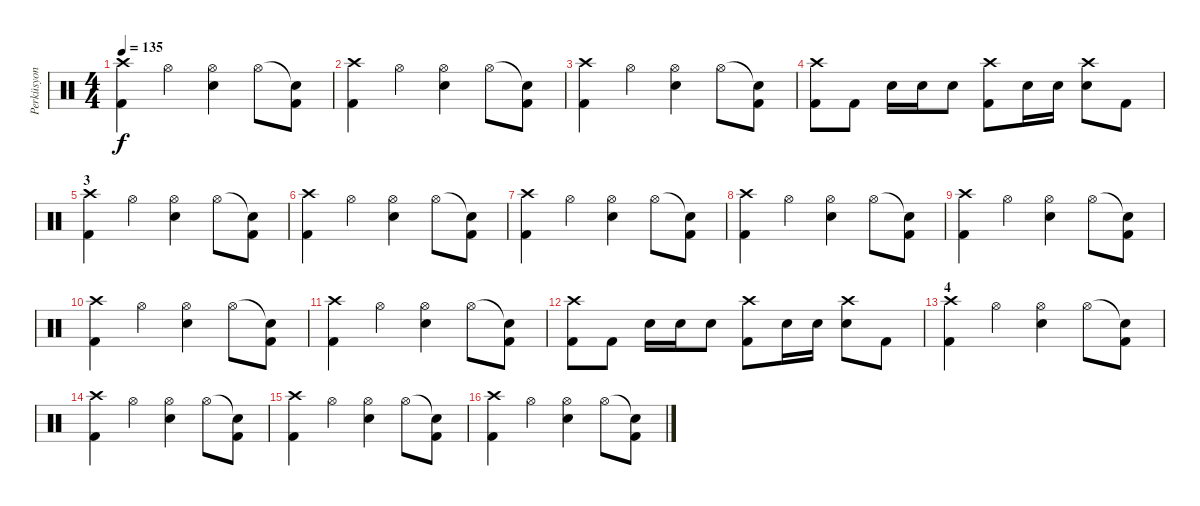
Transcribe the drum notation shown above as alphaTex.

\track ("Perküsyon" "Perküsyon") {instrument percussion}
\staff {score}
\articulation defaults
\ts (4 4)
\tempo 135
\clef neutral
\ks c
("Crash high (hit)" "Kick (hit) 2").4{dy f} "Hi-Hat (open)".4 ("Hi-Hat (open)" "Snare (hit) 2").4 "Hi-Hat (open)".8 ("Snare (hit)"{t} "Kick (hit) 2").8 |
("Crash high (hit)" "Kick (hit) 2").4 "Hi-Hat (open)".4 ("Hi-Hat (open)" "Snare (hit) 2").4 "Hi-Hat (open)".8 ("Snare (hit)"{t} "Kick (hit) 2").8 |
("Crash high (hit)" "Kick (hit) 2").4 "Hi-Hat (open)".4 ("Hi-Hat (open)" "Snare (hit) 2").4 "Hi-Hat (open)".8 ("Snare (hit)"{t} "Kick (hit) 2").8 |
("Kick (hit) 2" "Crash high (hit)").8 "Kick (hit) 2".8 "Snare (hit) 2".16 "Snare (hit) 2".16 "Snare (hit) 2".8 ("Kick (hit) 2" "Crash high (hit)").8 "Snare (hit) 2".16 "Snare (hit) 2".16 ("Snare (hit) 2" "Crash high (hit)").8 "Kick (hit) 2".8 |
\section ("" "3")
("Crash high (hit)" "Kick (hit) 2").4 "Hi-Hat (open)".4 ("Hi-Hat (open)" "Snare (hit) 2").4 "Hi-Hat (open)".8 ("Snare (hit)"{t} "Kick (hit) 2").8 |
("Crash high (hit)" "Kick (hit) 2").4 "Hi-Hat (open)".4 ("Hi-Hat (open)" "Snare (hit) 2").4 "Hi-Hat (open)".8 ("Snare (hit)"{t} "Kick (hit) 2").8 |
("Crash high (hit)" "Kick (hit) 2").4 "Hi-Hat (open)".4 ("Hi-Hat (open)" "Snare (hit) 2").4 "Hi-Hat (open)".8 ("Snare (hit)"{t} "Kick (hit) 2").8 |
("Crash high (hit)" "Kick (hit) 2").4 "Hi-Hat (open)".4 ("Hi-Hat (open)" "Snare (hit) 2").4 "Hi-Hat (open)".8 ("Snare (hit)"{t} "Kick (hit) 2").8 |
("Crash high (hit)" "Kick (hit) 2").4 "Hi-Hat (open)".4 ("Hi-Hat (open)" "Snare (hit) 2").4 "Hi-Hat (open)".8 ("Snare (hit)"{t} "Kick (hit) 2").8 |
("Crash high (hit)" "Kick (hit) 2").4 "Hi-Hat (open)".4 ("Hi-Hat (open)" "Snare (hit) 2").4 "Hi-Hat (open)".8 ("Snare (hit)"{t} "Kick (hit) 2").8 |
("Crash high (hit)" "Kick (hit) 2").4 "Hi-Hat (open)".4 ("Hi-Hat (open)" "Snare (hit) 2").4 "Hi-Hat (open)".8 ("Snare (hit)"{t} "Kick (hit) 2").8 |
("Kick (hit) 2" "Crash high (hit)").8 "Kick (hit) 2".8 "Snare (hit) 2".16 "Snare (hit) 2".16 "Snare (hit) 2".8 ("Kick (hit) 2" "Crash high (hit)").8 "Snare (hit) 2".16 "Snare (hit) 2".16 ("Snare (hit) 2" "Crash high (hit)").8 "Kick (hit) 2".8 |
\section ("" "4")
("Crash high (hit)" "Kick (hit) 2").4 "Hi-Hat (open)".4 ("Hi-Hat (open)" "Snare (hit) 2").4 "Hi-Hat (open)".8 ("Snare (hit)"{t} "Kick (hit) 2").8 |
("Crash high (hit)" "Kick (hit) 2").4 "Hi-Hat (open)".4 ("Hi-Hat (open)" "Snare (hit) 2").4 "Hi-Hat (open)".8 ("Snare (hit)"{t} "Kick (hit) 2").8 |
("Crash high (hit)" "Kick (hit) 2").4 "Hi-Hat (open)".4 ("Hi-Hat (open)" "Snare (hit) 2").4 "Hi-Hat (open)".8 ("Snare (hit)"{t} "Kick (hit) 2").8 |
("Crash high (hit)" "Kick (hit) 2").4 "Hi-Hat (open)".4 ("Hi-Hat (open)" "Snare (hit) 2").4 "Hi-Hat (open)".8 ("Snare (hit)"{t} "Kick (hit) 2").8
